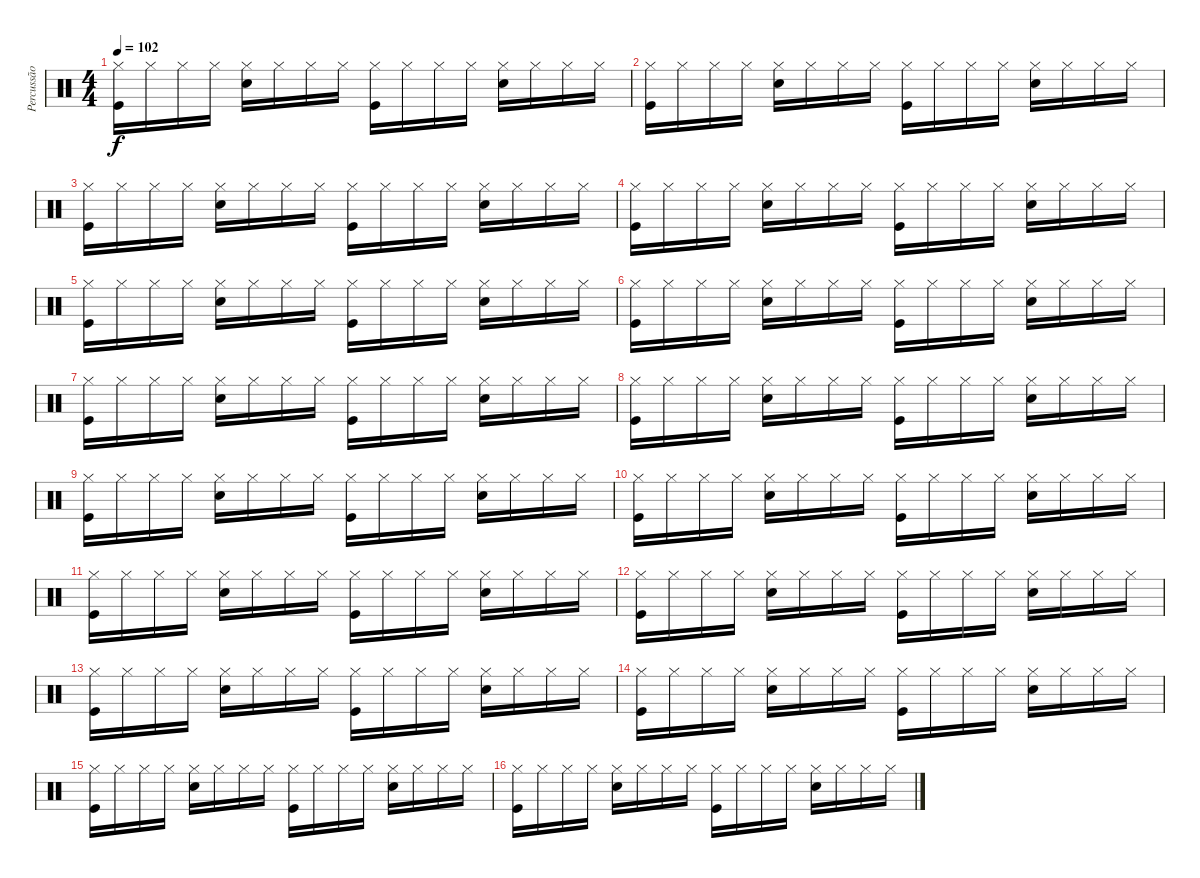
\track ("Percussão" "Percussão") {instrument percussion}
\staff {score}
\articulation defaults
\ts (4 4)
\tempo 102
\clef neutral
\ks c
("Hi-Hat (closed)" "Kick (hit)").16{dy f} "Hi-Hat (closed)".16 "Hi-Hat (closed)".16 "Hi-Hat (closed)".16 ("Hi-Hat (closed)" "Snare (hit) 2").16 "Hi-Hat (closed)".16 "Hi-Hat (closed)".16 "Hi-Hat (closed)".16 ("Hi-Hat (closed)" "Kick (hit)").16 "Hi-Hat (closed)".16 "Hi-Hat (closed)".16 "Hi-Hat (closed)".16 ("Hi-Hat (closed)" "Snare (hit) 2").16 "Hi-Hat (closed)".16 "Hi-Hat (closed)".16 "Hi-Hat (closed)".16 |
("Hi-Hat (closed)" "Kick (hit)").16 "Hi-Hat (closed)".16 "Hi-Hat (closed)".16 "Hi-Hat (closed)".16 ("Hi-Hat (closed)" "Snare (hit) 2").16 "Hi-Hat (closed)".16 "Hi-Hat (closed)".16 "Hi-Hat (closed)".16 ("Hi-Hat (closed)" "Kick (hit)").16 "Hi-Hat (closed)".16 "Hi-Hat (closed)".16 "Hi-Hat (closed)".16 ("Hi-Hat (closed)" "Snare (hit) 2").16 "Hi-Hat (closed)".16 "Hi-Hat (closed)".16 "Hi-Hat (closed)".16 |
("Hi-Hat (closed)" "Kick (hit)").16 "Hi-Hat (closed)".16 "Hi-Hat (closed)".16 "Hi-Hat (closed)".16 ("Hi-Hat (closed)" "Snare (hit) 2").16 "Hi-Hat (closed)".16 "Hi-Hat (closed)".16 "Hi-Hat (closed)".16 ("Hi-Hat (closed)" "Kick (hit)").16 "Hi-Hat (closed)".16 "Hi-Hat (closed)".16 "Hi-Hat (closed)".16 ("Hi-Hat (closed)" "Snare (hit) 2").16 "Hi-Hat (closed)".16 "Hi-Hat (closed)".16 "Hi-Hat (closed)".16 |
("Hi-Hat (closed)" "Kick (hit)").16 "Hi-Hat (closed)".16 "Hi-Hat (closed)".16 "Hi-Hat (closed)".16 ("Hi-Hat (closed)" "Snare (hit) 2").16 "Hi-Hat (closed)".16 "Hi-Hat (closed)".16 "Hi-Hat (closed)".16 ("Hi-Hat (closed)" "Kick (hit)").16 "Hi-Hat (closed)".16 "Hi-Hat (closed)".16 "Hi-Hat (closed)".16 ("Hi-Hat (closed)" "Snare (hit) 2").16 "Hi-Hat (closed)".16 "Hi-Hat (closed)".16 "Hi-Hat (closed)".16 |
("Hi-Hat (closed)" "Kick (hit)").16 "Hi-Hat (closed)".16 "Hi-Hat (closed)".16 "Hi-Hat (closed)".16 ("Hi-Hat (closed)" "Snare (hit) 2").16 "Hi-Hat (closed)".16 "Hi-Hat (closed)".16 "Hi-Hat (closed)".16 ("Hi-Hat (closed)" "Kick (hit)").16 "Hi-Hat (closed)".16 "Hi-Hat (closed)".16 "Hi-Hat (closed)".16 ("Hi-Hat (closed)" "Snare (hit) 2").16 "Hi-Hat (closed)".16 "Hi-Hat (closed)".16 "Hi-Hat (closed)".16 |
("Hi-Hat (closed)" "Kick (hit)").16 "Hi-Hat (closed)".16 "Hi-Hat (closed)".16 "Hi-Hat (closed)".16 ("Hi-Hat (closed)" "Snare (hit) 2").16 "Hi-Hat (closed)".16 "Hi-Hat (closed)".16 "Hi-Hat (closed)".16 ("Hi-Hat (closed)" "Kick (hit)").16 "Hi-Hat (closed)".16 "Hi-Hat (closed)".16 "Hi-Hat (closed)".16 ("Hi-Hat (closed)" "Snare (hit) 2").16 "Hi-Hat (closed)".16 "Hi-Hat (closed)".16 "Hi-Hat (closed)".16 |
("Hi-Hat (closed)" "Kick (hit)").16 "Hi-Hat (closed)".16 "Hi-Hat (closed)".16 "Hi-Hat (closed)".16 ("Hi-Hat (closed)" "Snare (hit) 2").16 "Hi-Hat (closed)".16 "Hi-Hat (closed)".16 "Hi-Hat (closed)".16 ("Hi-Hat (closed)" "Kick (hit)").16 "Hi-Hat (closed)".16 "Hi-Hat (closed)".16 "Hi-Hat (closed)".16 ("Hi-Hat (closed)" "Snare (hit) 2").16 "Hi-Hat (closed)".16 "Hi-Hat (closed)".16 "Hi-Hat (closed)".16 |
("Hi-Hat (closed)" "Kick (hit)").16 "Hi-Hat (closed)".16 "Hi-Hat (closed)".16 "Hi-Hat (closed)".16 ("Hi-Hat (closed)" "Snare (hit) 2").16 "Hi-Hat (closed)".16 "Hi-Hat (closed)".16 "Hi-Hat (closed)".16 ("Hi-Hat (closed)" "Kick (hit)").16 "Hi-Hat (closed)".16 "Hi-Hat (closed)".16 "Hi-Hat (closed)".16 ("Hi-Hat (closed)" "Snare (hit) 2").16 "Hi-Hat (closed)".16 "Hi-Hat (closed)".16 "Hi-Hat (closed)".16 |
("Hi-Hat (closed)" "Kick (hit)").16 "Hi-Hat (closed)".16 "Hi-Hat (closed)".16 "Hi-Hat (closed)".16 ("Hi-Hat (closed)" "Snare (hit) 2").16 "Hi-Hat (closed)".16 "Hi-Hat (closed)".16 "Hi-Hat (closed)".16 ("Hi-Hat (closed)" "Kick (hit)").16 "Hi-Hat (closed)".16 "Hi-Hat (closed)".16 "Hi-Hat (closed)".16 ("Hi-Hat (closed)" "Snare (hit) 2").16 "Hi-Hat (closed)".16 "Hi-Hat (closed)".16 "Hi-Hat (closed)".16 |
("Hi-Hat (closed)" "Kick (hit)").16 "Hi-Hat (closed)".16 "Hi-Hat (closed)".16 "Hi-Hat (closed)".16 ("Hi-Hat (closed)" "Snare (hit) 2").16 "Hi-Hat (closed)".16 "Hi-Hat (closed)".16 "Hi-Hat (closed)".16 ("Hi-Hat (closed)" "Kick (hit)").16 "Hi-Hat (closed)".16 "Hi-Hat (closed)".16 "Hi-Hat (closed)".16 ("Hi-Hat (closed)" "Snare (hit) 2").16 "Hi-Hat (closed)".16 "Hi-Hat (closed)".16 "Hi-Hat (closed)".16 |
("Hi-Hat (closed)" "Kick (hit)").16 "Hi-Hat (closed)".16 "Hi-Hat (closed)".16 "Hi-Hat (closed)".16 ("Hi-Hat (closed)" "Snare (hit) 2").16 "Hi-Hat (closed)".16 "Hi-Hat (closed)".16 "Hi-Hat (closed)".16 ("Hi-Hat (closed)" "Kick (hit)").16 "Hi-Hat (closed)".16 "Hi-Hat (closed)".16 "Hi-Hat (closed)".16 ("Hi-Hat (closed)" "Snare (hit) 2").16 "Hi-Hat (closed)".16 "Hi-Hat (closed)".16 "Hi-Hat (closed)".16 |
("Hi-Hat (closed)" "Kick (hit)").16 "Hi-Hat (closed)".16 "Hi-Hat (closed)".16 "Hi-Hat (closed)".16 ("Hi-Hat (closed)" "Snare (hit) 2").16 "Hi-Hat (closed)".16 "Hi-Hat (closed)".16 "Hi-Hat (closed)".16 ("Hi-Hat (closed)" "Kick (hit)").16 "Hi-Hat (closed)".16 "Hi-Hat (closed)".16 "Hi-Hat (closed)".16 ("Hi-Hat (closed)" "Snare (hit) 2").16 "Hi-Hat (closed)".16 "Hi-Hat (closed)".16 "Hi-Hat (closed)".16 |
("Hi-Hat (closed)" "Kick (hit)").16 "Hi-Hat (closed)".16 "Hi-Hat (closed)".16 "Hi-Hat (closed)".16 ("Hi-Hat (closed)" "Snare (hit) 2").16 "Hi-Hat (closed)".16 "Hi-Hat (closed)".16 "Hi-Hat (closed)".16 ("Hi-Hat (closed)" "Kick (hit)").16 "Hi-Hat (closed)".16 "Hi-Hat (closed)".16 "Hi-Hat (closed)".16 ("Hi-Hat (closed)" "Snare (hit) 2").16 "Hi-Hat (closed)".16 "Hi-Hat (closed)".16 "Hi-Hat (closed)".16 |
("Hi-Hat (closed)" "Kick (hit)").16 "Hi-Hat (closed)".16 "Hi-Hat (closed)".16 "Hi-Hat (closed)".16 ("Hi-Hat (closed)" "Snare (hit) 2").16 "Hi-Hat (closed)".16 "Hi-Hat (closed)".16 "Hi-Hat (closed)".16 ("Hi-Hat (closed)" "Kick (hit)").16 "Hi-Hat (closed)".16 "Hi-Hat (closed)".16 "Hi-Hat (closed)".16 ("Hi-Hat (closed)" "Snare (hit) 2").16 "Hi-Hat (closed)".16 "Hi-Hat (closed)".16 "Hi-Hat (closed)".16 |
("Hi-Hat (closed)" "Kick (hit)").16 "Hi-Hat (closed)".16 "Hi-Hat (closed)".16 "Hi-Hat (closed)".16 ("Hi-Hat (closed)" "Snare (hit) 2").16 "Hi-Hat (closed)".16 "Hi-Hat (closed)".16 "Hi-Hat (closed)".16 ("Hi-Hat (closed)" "Kick (hit)").16 "Hi-Hat (closed)".16 "Hi-Hat (closed)".16 "Hi-Hat (closed)".16 ("Hi-Hat (closed)" "Snare (hit) 2").16 "Hi-Hat (closed)".16 "Hi-Hat (closed)".16 "Hi-Hat (closed)".16 |
("Hi-Hat (closed)" "Kick (hit)").16 "Hi-Hat (closed)".16 "Hi-Hat (closed)".16 "Hi-Hat (closed)".16 ("Hi-Hat (closed)" "Snare (hit) 2").16 "Hi-Hat (closed)".16 "Hi-Hat (closed)".16 "Hi-Hat (closed)".16 ("Hi-Hat (closed)" "Kick (hit)").16 "Hi-Hat (closed)".16 "Hi-Hat (closed)".16 "Hi-Hat (closed)".16 ("Hi-Hat (closed)" "Snare (hit) 2").16 "Hi-Hat (closed)".16 "Hi-Hat (closed)".16 "Hi-Hat (closed)".16
